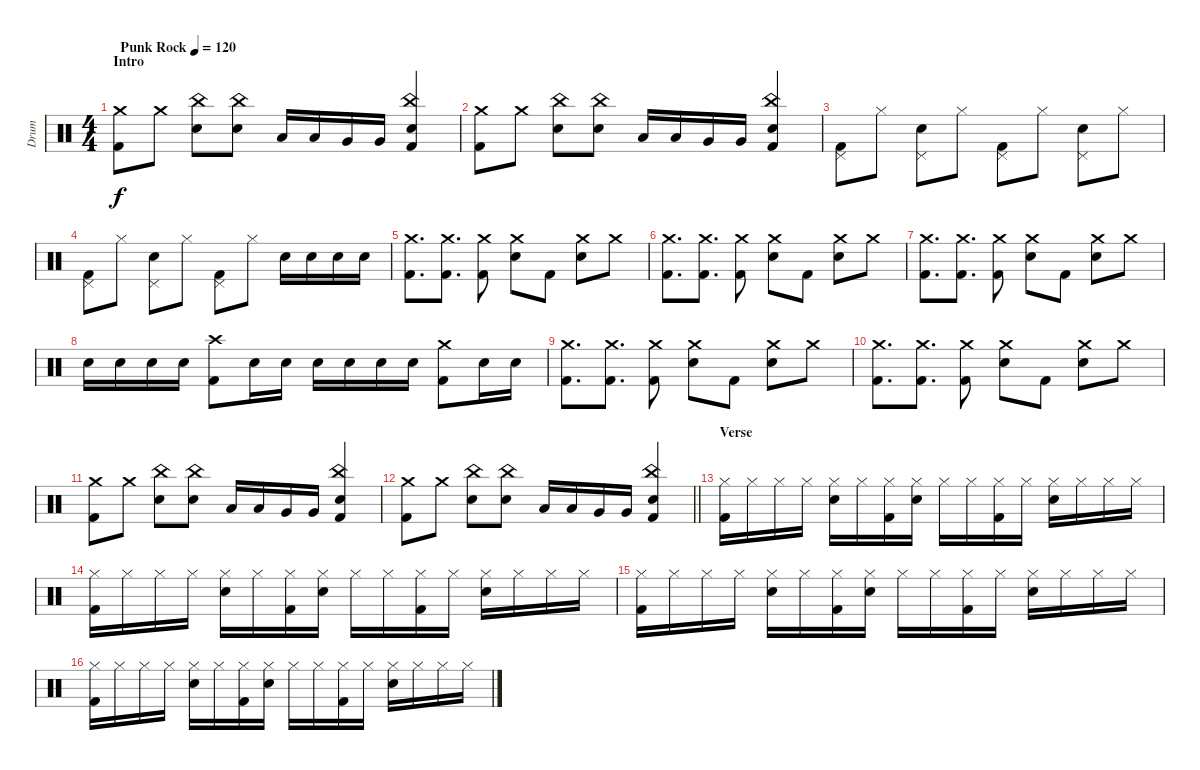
\track ("Drum" "Drum") {instrument percussion}
\staff {score}
\articulation defaults
\ts (4 4)
\section ("" "Intro")
\tempo (120 "Punk Rock")
\clef neutral
\ks c
("Crash medium (hit)" "Kick (hit) 2").8{dy f} "Crash medium (hit)".8 ("China (hit)" "Snare (hit) 2").8 ("China (hit)" "Snare (hit) 2").8 "Low Floor Tom (hit)".16 "Low Floor Tom (hit)".16 "Very Low Tom (hit)".16 "Very Low Tom (hit)".16 ("China (hit)" "Snare (hit) 2" "Kick (hit) 2").4 |
("Crash medium (hit)" "Kick (hit) 2").8 "Crash medium (hit)".8 ("China (hit)" "Snare (hit) 2").8 ("China (hit)" "Snare (hit) 2").8 "Low Floor Tom (hit)".16 "Low Floor Tom (hit)".16 "Very Low Tom (hit)".16 "Very Low Tom (hit)".16 ("China (hit)" "Snare (hit) 2" "Kick (hit) 2").4 |
("Pedal Hi-Hat (hit)" "Kick (hit) 2").8 "Hi-Hat (closed)".8 ("Pedal Hi-Hat (hit)" "Snare (hit) 2").8 "Hi-Hat (closed)".8 ("Pedal Hi-Hat (hit)" "Kick (hit) 2").8 "Hi-Hat (closed)".8 ("Pedal Hi-Hat (hit)" "Snare (hit) 2").8 "Hi-Hat (closed)".8 |
("Pedal Hi-Hat (hit)" "Kick (hit) 2").8 "Hi-Hat (closed)".8 ("Pedal Hi-Hat (hit)" "Snare (hit) 2").8 "Hi-Hat (closed)".8 ("Pedal Hi-Hat (hit)" "Kick (hit) 2").8 "Hi-Hat (closed)".8 "Snare (hit) 2".16 "Snare (hit) 2".16 "Snare (hit) 2".16 "Snare (hit) 2".16 |
("Crash medium (hit)" "Kick (hit) 2").8{d} ("Crash medium (hit)" "Kick (hit) 2").8{d} ("Crash medium (hit)" "Kick (hit) 2").8 ("Crash medium (hit)" "Snare (hit) 2").8 "Kick (hit) 2".8 ("Crash medium (hit)" "Snare (hit) 2").8 "Crash medium (hit)".8 |
("Crash medium (hit)" "Kick (hit) 2").8{d} ("Crash medium (hit)" "Kick (hit) 2").8{d} ("Crash medium (hit)" "Kick (hit) 2").8 ("Crash medium (hit)" "Snare (hit) 2").8 "Kick (hit) 2".8 ("Crash medium (hit)" "Snare (hit) 2").8 "Crash medium (hit)".8 |
("Crash medium (hit)" "Kick (hit) 2").8{d} ("Crash medium (hit)" "Kick (hit) 2").8{d} ("Crash medium (hit)" "Kick (hit) 2").8 ("Crash medium (hit)" "Snare (hit) 2").8 "Kick (hit) 2".8 ("Crash medium (hit)" "Snare (hit) 2").8 "Crash medium (hit)".8 |
"Snare (hit) 2".16 "Snare (hit) 2".16 "Snare (hit) 2".16 "Snare (hit) 2".16 ("Crash high (hit)" "Kick (hit) 2").8 "Snare (hit) 2".16 "Snare (hit) 2".16 "Snare (hit) 2".16 "Snare (hit) 2".16 "Snare (hit) 2".16 "Snare (hit) 2".16 ("Crash medium (hit)" "Kick (hit) 2").8 "Snare (hit) 2".16 "Snare (hit) 2".16 |
("Crash medium (hit)" "Kick (hit) 2").8{d} ("Crash medium (hit)" "Kick (hit) 2").8{d} ("Crash medium (hit)" "Kick (hit) 2").8 ("Crash medium (hit)" "Snare (hit) 2").8 "Kick (hit) 2".8 ("Crash medium (hit)" "Snare (hit) 2").8 "Crash medium (hit)".8 |
("Crash medium (hit)" "Kick (hit) 2").8{d} ("Crash medium (hit)" "Kick (hit) 2").8{d} ("Crash medium (hit)" "Kick (hit) 2").8 ("Crash medium (hit)" "Snare (hit) 2").8 "Kick (hit) 2".8 ("Crash medium (hit)" "Snare (hit) 2").8 "Crash medium (hit)".8 |
("Crash medium (hit)" "Kick (hit) 2").8 "Crash medium (hit)".8 ("China (hit)" "Snare (hit) 2").8 ("China (hit)" "Snare (hit) 2").8 "Low Floor Tom (hit)".16 "Low Floor Tom (hit)".16 "Very Low Tom (hit)".16 "Very Low Tom (hit)".16 ("China (hit)" "Snare (hit) 2" "Kick (hit) 2").4 |
\barLineRight lightlight
("Crash medium (hit)" "Kick (hit) 2").8 "Crash medium (hit)".8 ("China (hit)" "Snare (hit) 2").8 ("China (hit)" "Snare (hit) 2").8 "Low Floor Tom (hit)".16 "Low Floor Tom (hit)".16 "Very Low Tom (hit)".16 "Very Low Tom (hit)".16 ("China (hit)" "Snare (hit) 2" "Kick (hit) 2").4 |
\section ("" "Verse")
("Hi-Hat (closed)" "Kick (hit) 2").16 "Hi-Hat (closed)".16 "Hi-Hat (closed)".16 "Hi-Hat (closed)".16 ("Hi-Hat (closed)" "Snare (hit) 2").16 "Hi-Hat (closed)".16 ("Hi-Hat (closed)" "Kick (hit) 2").16 ("Hi-Hat (closed)" "Snare (hit) 2").16 "Hi-Hat (closed)".16 "Hi-Hat (closed)".16 ("Hi-Hat (closed)" "Kick (hit) 2").16 "Hi-Hat (closed)".16 ("Hi-Hat (closed)" "Snare (hit) 2").16 "Hi-Hat (closed)".16 "Hi-Hat (closed)".16 "Hi-Hat (closed)".16 |
("Hi-Hat (closed)" "Kick (hit) 2").16 "Hi-Hat (closed)".16 "Hi-Hat (closed)".16 "Hi-Hat (closed)".16 ("Hi-Hat (closed)" "Snare (hit) 2").16 "Hi-Hat (closed)".16 ("Hi-Hat (closed)" "Kick (hit) 2").16 ("Hi-Hat (closed)" "Snare (hit) 2").16 "Hi-Hat (closed)".16 "Hi-Hat (closed)".16 ("Hi-Hat (closed)" "Kick (hit) 2").16 "Hi-Hat (closed)".16 ("Hi-Hat (closed)" "Snare (hit) 2").16 "Hi-Hat (closed)".16 "Hi-Hat (closed)".16 "Hi-Hat (closed)".16 |
("Hi-Hat (closed)" "Kick (hit) 2").16 "Hi-Hat (closed)".16 "Hi-Hat (closed)".16 "Hi-Hat (closed)".16 ("Hi-Hat (closed)" "Snare (hit) 2").16 "Hi-Hat (closed)".16 ("Hi-Hat (closed)" "Kick (hit) 2").16 ("Hi-Hat (closed)" "Snare (hit) 2").16 "Hi-Hat (closed)".16 "Hi-Hat (closed)".16 ("Hi-Hat (closed)" "Kick (hit) 2").16 "Hi-Hat (closed)".16 ("Hi-Hat (closed)" "Snare (hit) 2").16 "Hi-Hat (closed)".16 "Hi-Hat (closed)".16 "Hi-Hat (closed)".16 |
("Hi-Hat (closed)" "Kick (hit) 2").16 "Hi-Hat (closed)".16 "Hi-Hat (closed)".16 "Hi-Hat (closed)".16 ("Hi-Hat (closed)" "Snare (hit) 2").16 "Hi-Hat (closed)".16 ("Hi-Hat (closed)" "Kick (hit) 2").16 ("Hi-Hat (closed)" "Snare (hit) 2").16 "Hi-Hat (closed)".16 "Hi-Hat (closed)".16 ("Hi-Hat (closed)" "Kick (hit) 2").16 "Hi-Hat (closed)".16 ("Hi-Hat (closed)" "Snare (hit) 2").16 "Hi-Hat (closed)".16 "Hi-Hat (closed)".16 "Hi-Hat (closed)".16
